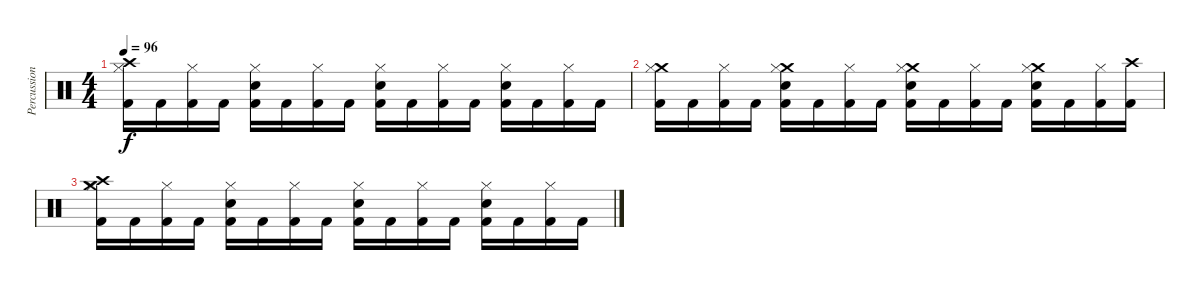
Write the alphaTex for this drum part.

\track ("Percussion" "Percussion") {instrument percussion bank 255}
\staff {score}
\articulation defaults
\ts (4 4)
\tempo 96
\clef neutral
\ks c
("Crash high (hit)" "Hi-Hat (closed)" "Kick (hit) 2").16{dy f} "Kick (hit) 2".16 ("Hi-Hat (closed)" "Kick (hit) 2").16 "Kick (hit) 2".16 ("Hi-Hat (closed)" "Electric Snare (hit)" "Kick (hit) 2").16 "Kick (hit) 2".16 ("Hi-Hat (closed)" "Kick (hit) 2").16 "Kick (hit) 2".16 ("Hi-Hat (closed)" "Electric Snare (hit)" "Kick (hit) 2").16 "Kick (hit) 2".16 ("Hi-Hat (closed)" "Kick (hit) 2").16 "Kick (hit) 2".16 ("Hi-Hat (closed)" "Electric Snare (hit)" "Kick (hit) 2").16 "Kick (hit) 2".16 ("Hi-Hat (closed)" "Kick (hit) 2").16 "Kick (hit) 2".16 |
("Crash medium (hit)" "Hi-Hat (closed)" "Kick (hit) 2").16 "Kick (hit) 2".16 ("Hi-Hat (closed)" "Kick (hit) 2").16 "Kick (hit) 2".16 ("Crash medium (hit)" "Hi-Hat (closed)" "Electric Snare (hit)" "Kick (hit) 2").16 "Kick (hit) 2".16 ("Hi-Hat (closed)" "Kick (hit) 2").16 "Kick (hit) 2".16 ("Crash medium (hit)" "Hi-Hat (closed)" "Electric Snare (hit)" "Kick (hit) 2").16 "Kick (hit) 2".16 ("Hi-Hat (closed)" "Kick (hit) 2").16 "Kick (hit) 2".16 ("Crash medium (hit)" "Hi-Hat (closed)" "Electric Snare (hit)" "Kick (hit) 2").16 "Kick (hit) 2".16 ("Hi-Hat (closed)" "Kick (hit) 2").16 ("Crash high (hit)" "Kick (hit) 2").16 |
("Crash medium (hit)" "Crash high (hit)" "Hi-Hat (closed)" "Kick (hit) 2").16 "Kick (hit) 2".16 ("Hi-Hat (closed)" "Kick (hit) 2").16 "Kick (hit) 2".16 ("Hi-Hat (closed)" "Electric Snare (hit)" "Kick (hit) 2").16 "Kick (hit) 2".16 ("Hi-Hat (closed)" "Kick (hit) 2").16 "Kick (hit) 2".16 ("Hi-Hat (closed)" "Electric Snare (hit)" "Kick (hit) 2").16 "Kick (hit) 2".16 ("Hi-Hat (closed)" "Kick (hit) 2").16 "Kick (hit) 2".16 ("Hi-Hat (closed)" "Electric Snare (hit)" "Kick (hit) 2").16 "Kick (hit) 2".16 ("Hi-Hat (closed)" "Kick (hit) 2").16 "Kick (hit) 2".16
